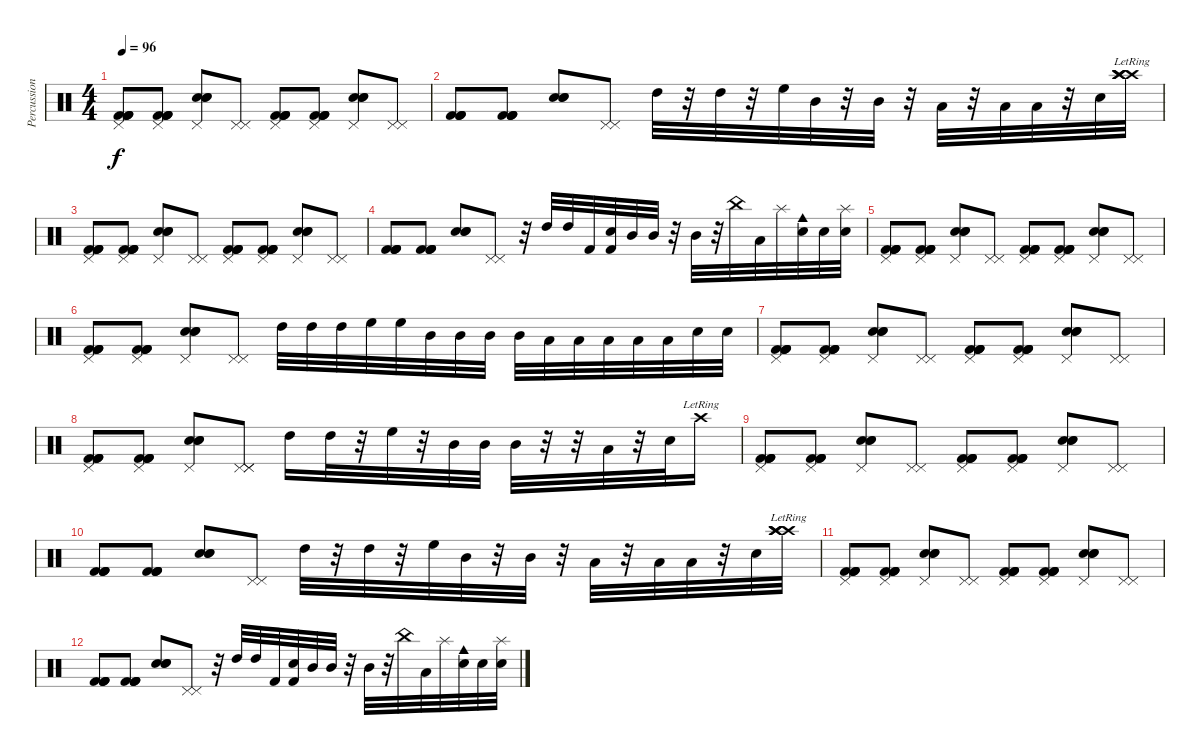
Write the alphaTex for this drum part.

\track ("Percussion" "Percussion") {instrument percussion}
\staff {score}
\articulation defaults
\ts (4 4)
\tempo 96
\clef neutral
\ks c
("Pedal Hi-Hat (hit)" "Kick (hit) 2" "Kick (hit) 2" "Kick (hit) 2" "Kick (hit) 2").8{dy f} ("Pedal Hi-Hat (hit)" "Kick (hit) 2" "Kick (hit) 2" "Kick (hit) 2" "Kick (hit) 2").8 ("Pedal Hi-Hat (hit)" "Electric Snare (hit)" "Electric Snare (hit)" "Electric Snare (hit)").8 ("Pedal Hi-Hat (hit)" "Pedal Hi-Hat (hit)").8 ("Pedal Hi-Hat (hit)" "Kick (hit) 2" "Kick (hit) 2" "Kick (hit) 2" "Kick (hit) 2").8 ("Pedal Hi-Hat (hit)" "Kick (hit) 2" "Kick (hit) 2" "Kick (hit) 2" "Kick (hit) 2").8 ("Pedal Hi-Hat (hit)" "Electric Snare (hit)" "Electric Snare (hit)" "Electric Snare (hit)").8 ("Pedal Hi-Hat (hit)" "Pedal Hi-Hat (hit)").8 |
("Kick (hit) 2" "Kick (hit) 2" "Kick (hit) 2" "Kick (hit) 2").8 ("Kick (hit) 2" "Kick (hit) 2" "Kick (hit) 2" "Kick (hit) 2").8 ("Electric Snare (hit)" "Electric Snare (hit)" "Electric Snare (hit)").8 ("Pedal Hi-Hat (hit)" "Pedal Hi-Hat (hit)").8 "High Tom (hit)".32 r.32 "High Tom (hit)".32 r.32 "High Floor Tom (hit)".32 "Mid Tom (hit)".32 r.32 "Mid Tom (hit)".32 r.32 "Low Tom (hit)".32 r.32 "Low Tom (hit)".32 "Low Floor Tom (hit)".32 r.32 "Electric Snare (hit)".32 ("Crash high (hit)"{lr} "Crash high (hit)"{lr} "Crash high (hit)"{lr} "Crash high (hit)"{lr}).32 |
("Pedal Hi-Hat (hit)" "Kick (hit) 2" "Kick (hit) 2" "Kick (hit) 2" "Kick (hit) 2").8 ("Pedal Hi-Hat (hit)" "Kick (hit) 2" "Kick (hit) 2" "Kick (hit) 2" "Kick (hit) 2").8 ("Pedal Hi-Hat (hit)" "Electric Snare (hit)" "Electric Snare (hit)" "Electric Snare (hit)").8 ("Pedal Hi-Hat (hit)" "Pedal Hi-Hat (hit)").8 ("Pedal Hi-Hat (hit)" "Kick (hit) 2" "Kick (hit) 2" "Kick (hit) 2" "Kick (hit) 2").8 ("Pedal Hi-Hat (hit)" "Kick (hit) 2" "Kick (hit) 2" "Kick (hit) 2" "Kick (hit) 2").8 ("Pedal Hi-Hat (hit)" "Electric Snare (hit)" "Electric Snare (hit)" "Electric Snare (hit)").8 ("Pedal Hi-Hat (hit)" "Pedal Hi-Hat (hit)").8 |
("Kick (hit) 2" "Kick (hit) 2" "Kick (hit) 2" "Kick (hit) 2").8 ("Kick (hit) 2" "Kick (hit) 2" "Kick (hit) 2" "Kick (hit) 2").8 ("Electric Snare (hit)" "Electric Snare (hit)" "Electric Snare (hit)").8 ("Pedal Hi-Hat (hit)" "Pedal Hi-Hat (hit)").8 r.32 "High Tom (hit)".32 "High Tom (hit)".32 "Kick (hit) 2".32 ("Electric Snare (hit)" "Kick (hit) 2").32 "Mid Tom (hit)".32 "Mid Tom (hit)".32 r.32 "Mid Tom (hit)".32 r.32 "China (hit)".32 "Low Tom (hit)".32 "Splash (hit)".32 ("Electric Snare (hit)" "Cowbell medium (hit)").32 "Electric Snare (hit)".32 ("Splash (hit)" "Electric Snare (hit)").32 |
("Pedal Hi-Hat (hit)" "Kick (hit) 2" "Kick (hit) 2" "Kick (hit) 2" "Kick (hit) 2").8 ("Pedal Hi-Hat (hit)" "Kick (hit) 2" "Kick (hit) 2" "Kick (hit) 2" "Kick (hit) 2").8 ("Pedal Hi-Hat (hit)" "Electric Snare (hit)" "Electric Snare (hit)" "Electric Snare (hit)").8 ("Pedal Hi-Hat (hit)" "Pedal Hi-Hat (hit)").8 ("Pedal Hi-Hat (hit)" "Kick (hit) 2" "Kick (hit) 2" "Kick (hit) 2" "Kick (hit) 2").8 ("Pedal Hi-Hat (hit)" "Kick (hit) 2" "Kick (hit) 2" "Kick (hit) 2" "Kick (hit) 2").8 ("Pedal Hi-Hat (hit)" "Electric Snare (hit)" "Electric Snare (hit)" "Electric Snare (hit)").8 ("Pedal Hi-Hat (hit)" "Pedal Hi-Hat (hit)").8 |
("Pedal Hi-Hat (hit)" "Kick (hit) 2" "Kick (hit) 2" "Kick (hit) 2" "Kick (hit) 2").8 ("Pedal Hi-Hat (hit)" "Kick (hit) 2" "Kick (hit) 2" "Kick (hit) 2" "Kick (hit) 2").8 ("Pedal Hi-Hat (hit)" "Electric Snare (hit)" "Electric Snare (hit)" "Electric Snare (hit)").8 ("Pedal Hi-Hat (hit)" "Pedal Hi-Hat (hit)").8 "High Tom (hit)".32 "High Tom (hit)".32 "High Tom (hit)".32 "High Floor Tom (hit)".32 "High Floor Tom (hit)".32 "Mid Tom (hit)".32 "Mid Tom (hit)".32 "Mid Tom (hit)".32 "Mid Tom (hit)".32 "Low Tom (hit)".32 "Low Tom (hit)".32 "Low Tom (hit)".32 "Low Floor Tom (hit)".32 "Low Floor Tom (hit)".32 "Electric Snare (hit)".32 "Electric Snare (hit)".32 |
("Pedal Hi-Hat (hit)" "Kick (hit) 2" "Kick (hit) 2" "Kick (hit) 2" "Kick (hit) 2").8 ("Pedal Hi-Hat (hit)" "Kick (hit) 2" "Kick (hit) 2" "Kick (hit) 2" "Kick (hit) 2").8 ("Pedal Hi-Hat (hit)" "Electric Snare (hit)" "Electric Snare (hit)" "Electric Snare (hit)").8 ("Pedal Hi-Hat (hit)" "Pedal Hi-Hat (hit)").8 ("Pedal Hi-Hat (hit)" "Kick (hit) 2" "Kick (hit) 2" "Kick (hit) 2" "Kick (hit) 2").8 ("Pedal Hi-Hat (hit)" "Kick (hit) 2" "Kick (hit) 2" "Kick (hit) 2" "Kick (hit) 2").8 ("Pedal Hi-Hat (hit)" "Electric Snare (hit)" "Electric Snare (hit)" "Electric Snare (hit)").8 ("Pedal Hi-Hat (hit)" "Pedal Hi-Hat (hit)").8 |
("Pedal Hi-Hat (hit)" "Kick (hit) 2" "Kick (hit) 2" "Kick (hit) 2" "Kick (hit) 2").8 ("Pedal Hi-Hat (hit)" "Kick (hit) 2" "Kick (hit) 2" "Kick (hit) 2" "Kick (hit) 2").8 ("Pedal Hi-Hat (hit)" "Electric Snare (hit)" "Electric Snare (hit)" "Electric Snare (hit)").8 ("Pedal Hi-Hat (hit)" "Pedal Hi-Hat (hit)" "Pedal Hi-Hat (hit)").8 "High Tom (hit)".16 "High Tom (hit)".32 r.32 "High Floor Tom (hit)".32 r.32 "Mid Tom (hit)".32 "Mid Tom (hit)".32 "Mid Tom (hit)".32 r.32 r.32 "Low Tom (hit)".32 r.32 "Electric Snare (hit)".32 "Crash high (hit)"{lr}.16 |
("Pedal Hi-Hat (hit)" "Kick (hit) 2" "Kick (hit) 2" "Kick (hit) 2" "Kick (hit) 2").8 ("Pedal Hi-Hat (hit)" "Kick (hit) 2" "Kick (hit) 2" "Kick (hit) 2" "Kick (hit) 2").8 ("Pedal Hi-Hat (hit)" "Electric Snare (hit)" "Electric Snare (hit)" "Electric Snare (hit)").8 ("Pedal Hi-Hat (hit)" "Pedal Hi-Hat (hit)").8 ("Pedal Hi-Hat (hit)" "Kick (hit) 2" "Kick (hit) 2" "Kick (hit) 2" "Kick (hit) 2").8 ("Pedal Hi-Hat (hit)" "Kick (hit) 2" "Kick (hit) 2" "Kick (hit) 2" "Kick (hit) 2").8 ("Pedal Hi-Hat (hit)" "Electric Snare (hit)" "Electric Snare (hit)" "Electric Snare (hit)").8 ("Pedal Hi-Hat (hit)" "Pedal Hi-Hat (hit)").8 |
("Kick (hit) 2" "Kick (hit) 2" "Kick (hit) 2" "Kick (hit) 2").8 ("Kick (hit) 2" "Kick (hit) 2" "Kick (hit) 2" "Kick (hit) 2").8 ("Electric Snare (hit)" "Electric Snare (hit)" "Electric Snare (hit)").8 ("Pedal Hi-Hat (hit)" "Pedal Hi-Hat (hit)").8 "High Tom (hit)".32 r.32 "High Tom (hit)".32 r.32 "High Floor Tom (hit)".32 "Mid Tom (hit)".32 r.32 "Mid Tom (hit)".32 r.32 "Low Tom (hit)".32 r.32 "Low Tom (hit)".32 "Low Floor Tom (hit)".32 r.32 "Electric Snare (hit)".32 ("Crash high (hit)"{lr} "Crash high (hit)"{lr} "Crash high (hit)"{lr} "Crash high (hit)"{lr}).32 |
("Pedal Hi-Hat (hit)" "Kick (hit) 2" "Kick (hit) 2" "Kick (hit) 2" "Kick (hit) 2").8 ("Pedal Hi-Hat (hit)" "Kick (hit) 2" "Kick (hit) 2" "Kick (hit) 2" "Kick (hit) 2").8 ("Pedal Hi-Hat (hit)" "Electric Snare (hit)" "Electric Snare (hit)" "Electric Snare (hit)").8 ("Pedal Hi-Hat (hit)" "Pedal Hi-Hat (hit)").8 ("Pedal Hi-Hat (hit)" "Kick (hit) 2" "Kick (hit) 2" "Kick (hit) 2" "Kick (hit) 2").8 ("Pedal Hi-Hat (hit)" "Kick (hit) 2" "Kick (hit) 2" "Kick (hit) 2" "Kick (hit) 2").8 ("Pedal Hi-Hat (hit)" "Electric Snare (hit)" "Electric Snare (hit)" "Electric Snare (hit)").8 ("Pedal Hi-Hat (hit)" "Pedal Hi-Hat (hit)").8 |
("Kick (hit) 2" "Kick (hit) 2" "Kick (hit) 2" "Kick (hit) 2").8 ("Kick (hit) 2" "Kick (hit) 2" "Kick (hit) 2" "Kick (hit) 2").8 ("Electric Snare (hit)" "Electric Snare (hit)" "Electric Snare (hit)").8 ("Pedal Hi-Hat (hit)" "Pedal Hi-Hat (hit)").8 r.32 "High Tom (hit)".32 "High Tom (hit)".32 "Kick (hit) 2".32 ("Electric Snare (hit)" "Kick (hit) 2").32 "Mid Tom (hit)".32 "Mid Tom (hit)".32 r.32 "Mid Tom (hit)".32 r.32 "China (hit)".32 "Low Tom (hit)".32 "Splash (hit)".32 ("Electric Snare (hit)" "Cowbell medium (hit)").32 "Electric Snare (hit)".32 ("Splash (hit)" "Electric Snare (hit)").32
